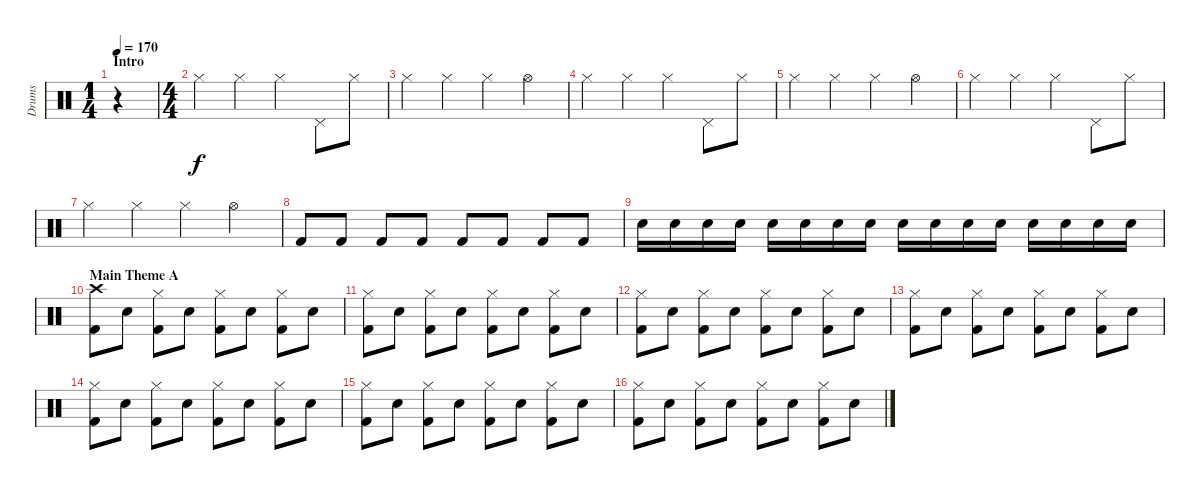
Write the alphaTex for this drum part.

\track ("Drums" "Drums") {instrument percussion}
\staff {score}
\articulation defaults
\ts (1 4)
\section ("" "Intro")
\tempo 170
\clef neutral
\ks c
r.4{dy f} |
\ts (4 4)
"Hi-Hat (closed)".4 "Hi-Hat (closed)".4 "Hi-Hat (closed)".4 "Pedal Hi-Hat (hit)".8 "Hi-Hat (closed)".8 |
"Hi-Hat (closed)".4 "Hi-Hat (closed)".4 "Hi-Hat (closed)".4 "Hi-Hat (open)".4 |
"Hi-Hat (closed)".4 "Hi-Hat (closed)".4 "Hi-Hat (closed)".4 "Pedal Hi-Hat (hit)".8 "Hi-Hat (closed)".8 |
"Hi-Hat (closed)".4 "Hi-Hat (closed)".4 "Hi-Hat (closed)".4 "Hi-Hat (open)".4 |
"Hi-Hat (closed)".4 "Hi-Hat (closed)".4 "Hi-Hat (closed)".4 "Pedal Hi-Hat (hit)".8 "Hi-Hat (closed)".8 |
"Hi-Hat (closed)".4 "Hi-Hat (closed)".4 "Hi-Hat (closed)".4 "Hi-Hat (open)".4 |
"Kick (hit) 2".8 "Kick (hit) 2".8 "Kick (hit) 2".8 "Kick (hit) 2".8 "Kick (hit) 2".8 "Kick (hit) 2".8 "Kick (hit) 2".8 "Kick (hit) 2".8 |
"Electric Snare (hit)".16{volume 7} "Electric Snare (hit)".16{volume 13} "Electric Snare (hit)".16 "Electric Snare (hit)".16 "Electric Snare (hit)".16 "Electric Snare (hit)".16 "Electric Snare (hit)".16 "Electric Snare (hit)".16 "Electric Snare (hit)".16 "Electric Snare (hit)".16 "Electric Snare (hit)".16 "Electric Snare (hit)".16 "Electric Snare (hit)".16 "Electric Snare (hit)".16 "Electric Snare (hit)".16 "Electric Snare (hit)".16 |
\section ("" "Main Theme A")
("Crash high (hit)" "Kick (hit) 2").8 "Electric Snare (hit)".8{volume 10} ("Hi-Hat (closed)" "Kick (hit) 2").8 "Electric Snare (hit)".8 ("Hi-Hat (closed)" "Kick (hit) 2").8 "Electric Snare (hit)".8 ("Hi-Hat (closed)" "Kick (hit) 2").8 "Electric Snare (hit)".8 |
("Hi-Hat (closed)" "Kick (hit) 2").8 "Electric Snare (hit)".8 ("Hi-Hat (closed)" "Kick (hit) 2").8 "Electric Snare (hit)".8 ("Hi-Hat (closed)" "Kick (hit) 2").8 "Electric Snare (hit)".8 ("Hi-Hat (closed)" "Kick (hit) 2").8 "Electric Snare (hit)".8 |
("Hi-Hat (closed)" "Kick (hit) 2").8 "Electric Snare (hit)".8 ("Hi-Hat (closed)" "Kick (hit) 2").8 "Electric Snare (hit)".8 ("Hi-Hat (closed)" "Kick (hit) 2").8 "Electric Snare (hit)".8 ("Hi-Hat (closed)" "Kick (hit) 2").8 "Electric Snare (hit)".8 |
("Hi-Hat (closed)" "Kick (hit) 2").8 "Electric Snare (hit)".8 ("Hi-Hat (closed)" "Kick (hit) 2").8 "Electric Snare (hit)".8 ("Hi-Hat (closed)" "Kick (hit) 2").8 "Electric Snare (hit)".8 ("Hi-Hat (closed)" "Kick (hit) 2").8 "Electric Snare (hit)".8 |
("Hi-Hat (closed)" "Kick (hit) 2").8 "Electric Snare (hit)".8 ("Hi-Hat (closed)" "Kick (hit) 2").8 "Electric Snare (hit)".8 ("Hi-Hat (closed)" "Kick (hit) 2").8 "Electric Snare (hit)".8 ("Hi-Hat (closed)" "Kick (hit) 2").8 "Electric Snare (hit)".8 |
("Hi-Hat (closed)" "Kick (hit) 2").8 "Electric Snare (hit)".8 ("Hi-Hat (closed)" "Kick (hit) 2").8 "Electric Snare (hit)".8 ("Hi-Hat (closed)" "Kick (hit) 2").8 "Electric Snare (hit)".8 ("Hi-Hat (closed)" "Kick (hit) 2").8 "Electric Snare (hit)".8 |
("Hi-Hat (closed)" "Kick (hit) 2").8 "Electric Snare (hit)".8 ("Hi-Hat (closed)" "Kick (hit) 2").8 "Electric Snare (hit)".8 ("Hi-Hat (closed)" "Kick (hit) 2").8 "Electric Snare (hit)".8 ("Hi-Hat (closed)" "Kick (hit) 2").8 "Electric Snare (hit)".8
